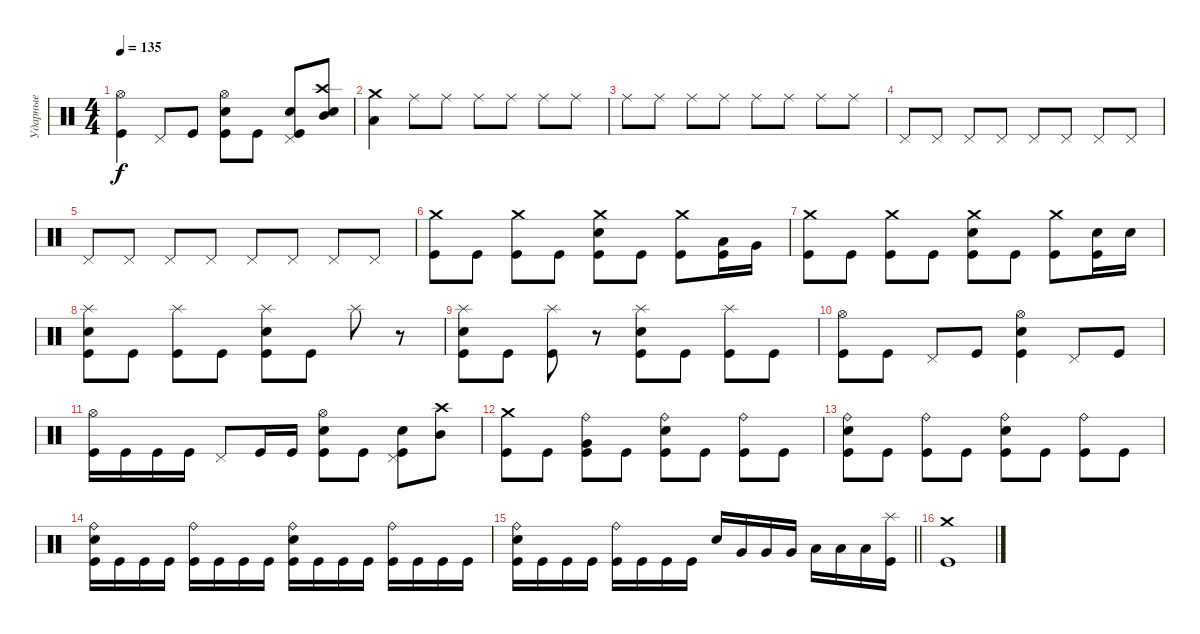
\track ("Ударные" "Ударные") {instrument percussion}
\staff {score}
\articulation defaults
\ts (4 4)
\tempo 135
\clef neutral
\ks c
("Hi-Hat (open)" "Kick (hit)").4{dy f} "Pedal Hi-Hat (hit)".8 "Kick (hit)".8 ("Hi-Hat (open)" "Electric Snare (hit)" "Kick (hit)").8 "Kick (hit)".8 ("Pedal Hi-Hat (hit)" "Electric Snare (hit)" "Kick (hit)").8 ("Crash high (hit)" "Mid Tom (hit)" "Electric Snare (hit)").8 |
("Crash medium (hit)" "Low Tom (hit)").4 "Ride (middle)".8 "Ride (middle)".8 "Ride (middle)".8 "Ride (middle)".8 "Ride (middle)".8 "Ride (middle)".8 |
"Ride (middle)".8 "Ride (middle)".8 "Ride (middle)".8 "Ride (middle)".8 "Ride (middle)".8 "Ride (middle)".8 "Ride (middle)".8 "Ride (middle)".8 |
"Pedal Hi-Hat (hit)".8 "Pedal Hi-Hat (hit)".8 "Pedal Hi-Hat (hit)".8 "Pedal Hi-Hat (hit)".8 "Pedal Hi-Hat (hit)".8 "Pedal Hi-Hat (hit)".8 "Pedal Hi-Hat (hit)".8 "Pedal Hi-Hat (hit)".8 |
"Pedal Hi-Hat (hit)".8 "Pedal Hi-Hat (hit)".8 "Pedal Hi-Hat (hit)".8 "Pedal Hi-Hat (hit)".8 "Pedal Hi-Hat (hit)".8 "Pedal Hi-Hat (hit)".8 "Pedal Hi-Hat (hit)".8 "Pedal Hi-Hat (hit)".8 |
("Crash medium (hit)" "Kick (hit)").8 "Kick (hit)".8 ("Crash medium (hit)" "Kick (hit)").8 "Kick (hit)".8 ("Crash medium (hit)" "Electric Snare (hit)" "Kick (hit)").8 "Kick (hit)".8 ("Crash medium (hit)" "Kick (hit)").8 ("Low Tom (hit)" "Kick (hit)").16 "Very Low Tom (hit)".16 |
("Crash medium (hit)" "Kick (hit)").8 "Kick (hit)".8 ("Crash medium (hit)" "Kick (hit)").8 "Kick (hit)".8 ("Crash medium (hit)" "Electric Snare (hit)" "Kick (hit)").8 "Kick (hit)".8 ("Crash medium (hit)" "Kick (hit)").8 ("Electric Snare (hit)" "Kick (hit)").16 "Electric Snare (hit)".16 |
("Splash (hit)" "Electric Snare (hit)" "Kick (hit)").8 "Kick (hit)".8 ("Splash (hit)" "Kick (hit)").8 "Kick (hit)".8 ("Splash (hit)" "Electric Snare (hit)" "Kick (hit)").8 "Kick (hit)".8 "Splash (hit)".8 r.8 |
("Splash (hit)" "Electric Snare (hit)" "Kick (hit)").8 "Kick (hit)".8 ("Splash (hit)" "Kick (hit)").8 r.8 ("Splash (hit)" "Electric Snare (hit)" "Kick (hit)").8 "Kick (hit)".8 ("Splash (hit)" "Kick (hit)").8 "Kick (hit)".8 |
("Hi-Hat (open)" "Kick (hit)").8 "Kick (hit)".8 "Pedal Hi-Hat (hit)".8 "Kick (hit)".8 ("Hi-Hat (open)" "Electric Snare (hit)" "Kick (hit)").4 "Pedal Hi-Hat (hit)".8 "Kick (hit)".8 |
("Hi-Hat (open)" "Kick (hit)").16 "Kick (hit)".16 "Kick (hit)".16 "Kick (hit)".16 "Pedal Hi-Hat (hit)".8 "Kick (hit)".16 "Kick (hit)".16 ("Hi-Hat (open)" "Electric Snare (hit)" "Kick (hit)").8 "Kick (hit)".8 ("Pedal Hi-Hat (hit)" "Electric Snare (hit)" "Kick (hit)").8 ("Crash high (hit)" "Mid Tom (hit)").8 |
("Crash medium (hit)" "Kick (hit)").8 "Kick (hit)".8 ("Ride (bell)" "Very Low Tom (hit)" "Kick (hit)").8 "Kick (hit)".8 ("Ride (bell)" "Electric Snare (hit)" "Kick (hit)").8 "Kick (hit)".8 ("Ride (bell)" "Kick (hit)").8 "Kick (hit)".8 |
("Ride (bell)" "Electric Snare (hit)" "Kick (hit)").8 "Kick (hit)".8 ("Ride (bell)" "Kick (hit)").8 "Kick (hit)".8 ("Ride (bell)" "Electric Snare (hit)" "Kick (hit)").8 "Kick (hit)".8 ("Ride (bell)" "Kick (hit)").8 "Kick (hit)".8 |
("Ride (bell)" "Electric Snare (hit)" "Kick (hit)").16 "Kick (hit)".16 "Kick (hit)".16 "Kick (hit)".16 ("Ride (bell)" "Kick (hit)").16 "Kick (hit)".16 "Kick (hit)".16 "Kick (hit)".16 ("Ride (bell)" "Electric Snare (hit)" "Kick (hit)").16 "Kick (hit)".16 "Kick (hit)".16 "Kick (hit)".16 ("Ride (bell)" "Kick (hit)").16 "Kick (hit)".16 "Kick (hit)".16 "Kick (hit)".16 |
\barLineRight lightlight
("Ride (bell)" "Electric Snare (hit)" "Kick (hit)").16 "Kick (hit)".16 "Kick (hit)".16 "Kick (hit)".16 ("Ride (bell)" "Kick (hit)").16 "Kick (hit)".16 "Kick (hit)".16 "Kick (hit)".16 "Electric Snare (hit)".16 "Very Low Tom (hit)".16 "Very Low Tom (hit)".16 "Very Low Tom (hit)".16 "Low Floor Tom (hit)".16 "Low Floor Tom (hit)".16 "Low Floor Tom (hit)".16 ("Splash (hit)" "Kick (hit)").16 |
\section ("" " ")
("Crash medium (hit)" "Kick (hit)").1
